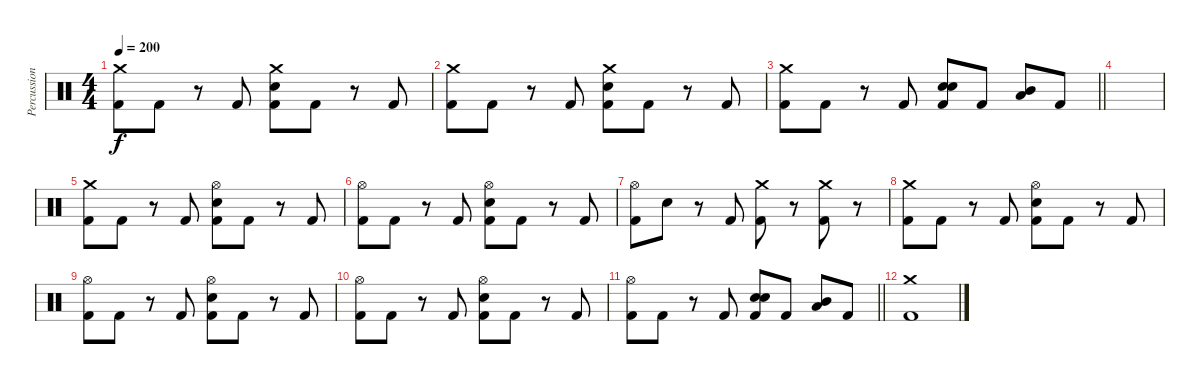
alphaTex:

\track ("Percussion" "Percussion") {instrument percussion}
\staff {score}
\articulation defaults
\ts (4 4)
\tempo 200
\clef neutral
\ks c
("Crash medium (hit)" "Kick (hit) 2").8{dy f} "Kick (hit) 2".8 r.8 "Kick (hit) 2".8 ("Crash medium (hit)" "Electric Snare (hit)" "Kick (hit) 2").8 "Kick (hit) 2".8 r.8 "Kick (hit) 2".8 |
("Crash medium (hit)" "Kick (hit) 2").8 "Kick (hit) 2".8 r.8 "Kick (hit) 2".8 ("Crash medium (hit)" "Electric Snare (hit)" "Kick (hit) 2").8 "Kick (hit) 2".8 r.8 "Kick (hit) 2".8 |
\barLineRight lightlight
("Crash medium (hit)" "Kick (hit) 2").8 "Kick (hit) 2".8 r.8 "Kick (hit) 2".8 ("Electric Snare (hit)" "Electric Snare (hit)" "Kick (hit) 2").8{bd 30} "Kick (hit) 2".8 ("Mid Tom (hit)" "Low Tom (hit)").8{bd 30} "Kick (hit) 2".8 |
|
("Crash medium (hit)" "Kick (hit) 2").8 "Kick (hit) 2".8 r.8 "Kick (hit) 2".8 ("Hi-Hat (open)" "Electric Snare (hit)" "Kick (hit) 2").8 "Kick (hit) 2".8 r.8 "Kick (hit) 2".8 |
("Hi-Hat (open)" "Kick (hit) 2").8 "Kick (hit) 2".8 r.8 "Kick (hit) 2".8 ("Hi-Hat (open)" "Electric Snare (hit)" "Kick (hit) 2").8 "Kick (hit) 2".8 r.8 "Kick (hit) 2".8 |
("Hi-Hat (open)" "Kick (hit) 2").8 "Electric Snare (hit)".8 r.8 "Kick (hit) 2".8 ("Crash medium (hit)" "Kick (hit) 2").8 r.8 ("Crash medium (hit)" "Kick (hit) 2").8 r.8 |
("Crash medium (hit)" "Kick (hit) 2").8 "Kick (hit) 2".8 r.8 "Kick (hit) 2".8 ("Hi-Hat (open)" "Electric Snare (hit)" "Kick (hit) 2").8 "Kick (hit) 2".8 r.8 "Kick (hit) 2".8 |
("Hi-Hat (open)" "Kick (hit) 2").8 "Kick (hit) 2".8 r.8 "Kick (hit) 2".8 ("Hi-Hat (open)" "Electric Snare (hit)" "Kick (hit) 2").8 "Kick (hit) 2".8 r.8 "Kick (hit) 2".8 |
("Hi-Hat (open)" "Kick (hit) 2").8 "Kick (hit) 2".8 r.8 "Kick (hit) 2".8 ("Hi-Hat (open)" "Electric Snare (hit)" "Kick (hit) 2").8 "Kick (hit) 2".8 r.8 "Kick (hit) 2".8 |
\barLineRight lightlight
("Hi-Hat (open)" "Kick (hit) 2").8 "Kick (hit) 2".8 r.8 "Kick (hit) 2".8 ("Electric Snare (hit)" "Electric Snare (hit)" "Kick (hit) 2").8{bd 30} "Kick (hit) 2".8 ("Mid Tom (hit)" "Low Tom (hit)").8{bd 30} "Kick (hit) 2".8 |
("Crash medium (hit)" "Kick (hit) 2").1
